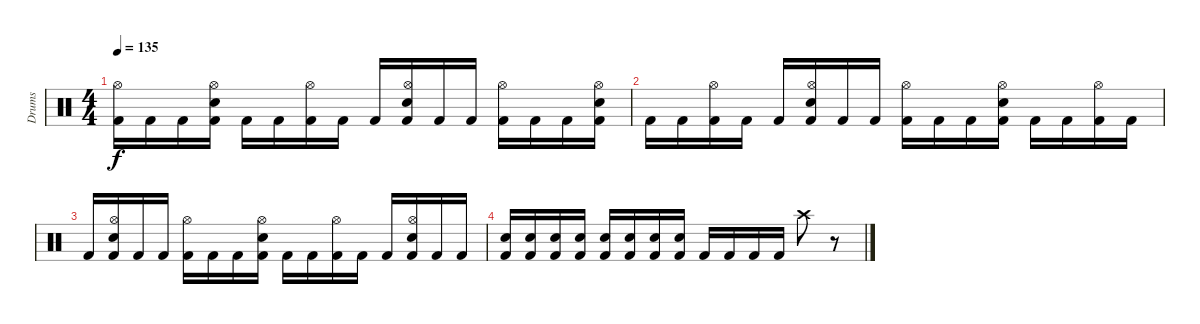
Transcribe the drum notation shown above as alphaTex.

\track ("Drums" "Drums") {instrument percussion}
\staff {score}
\articulation defaults
\ts (4 4)
\tempo 135
\clef neutral
\ks c
("Kick (hit) 2" "Hi-Hat (open)").16{dy f} "Kick (hit) 2".16 "Kick (hit) 2".16 ("Kick (hit) 2" "Electric Snare (hit)" "Hi-Hat (open)").16 "Kick (hit) 2".16 "Kick (hit) 2".16 ("Kick (hit) 2" "Hi-Hat (open)").16 "Kick (hit) 2".16 "Kick (hit) 2".16 ("Kick (hit) 2" "Electric Snare (hit)" "Hi-Hat (open)").16 "Kick (hit) 2".16 "Kick (hit) 2".16 ("Kick (hit) 2" "Hi-Hat (open)").16 "Kick (hit) 2".16 "Kick (hit) 2".16 ("Kick (hit) 2" "Hi-Hat (open)" "Electric Snare (hit)").16 |
"Kick (hit) 2".16 "Kick (hit) 2".16 ("Kick (hit) 2" "Hi-Hat (open)").16 "Kick (hit) 2".16 "Kick (hit) 2".16 ("Kick (hit) 2" "Electric Snare (hit)" "Hi-Hat (open)").16 "Kick (hit) 2".16 "Kick (hit) 2".16 ("Kick (hit) 2" "Hi-Hat (open)").16 "Kick (hit) 2".16 "Kick (hit) 2".16 ("Kick (hit) 2" "Electric Snare (hit)" "Hi-Hat (open)").16 "Kick (hit) 2".16 "Kick (hit) 2".16 ("Kick (hit) 2" "Hi-Hat (open)").16 "Kick (hit) 2".16 |
"Kick (hit) 2".16 ("Kick (hit) 2" "Electric Snare (hit)" "Hi-Hat (open)").16 "Kick (hit) 2".16 "Kick (hit) 2".16 ("Kick (hit) 2" "Hi-Hat (open)").16 "Kick (hit) 2".16 "Kick (hit) 2".16 ("Kick (hit) 2" "Electric Snare (hit)" "Hi-Hat (open)").16 "Kick (hit) 2".16 "Kick (hit) 2".16 ("Kick (hit) 2" "Hi-Hat (open)").16 "Kick (hit) 2".16 "Kick (hit) 2".16 ("Kick (hit) 2" "Electric Snare (hit)" "Hi-Hat (open)").16 "Kick (hit) 2".16 "Kick (hit) 2".16 |
("Kick (hit) 2" "Electric Snare (hit)").16 ("Kick (hit) 2" "Electric Snare (hit)").16 ("Kick (hit) 2" "Electric Snare (hit)").16 ("Kick (hit) 2" "Electric Snare (hit)").16 ("Kick (hit) 2" "Electric Snare (hit)").16 ("Kick (hit) 2" "Electric Snare (hit)").16 ("Kick (hit) 2" "Electric Snare (hit)").16 ("Kick (hit) 2" "Electric Snare (hit)").16 "Kick (hit) 2".16 "Kick (hit) 2".16 "Kick (hit) 2".16 "Kick (hit) 2".16 "Crash high (hit)".8 r.8
